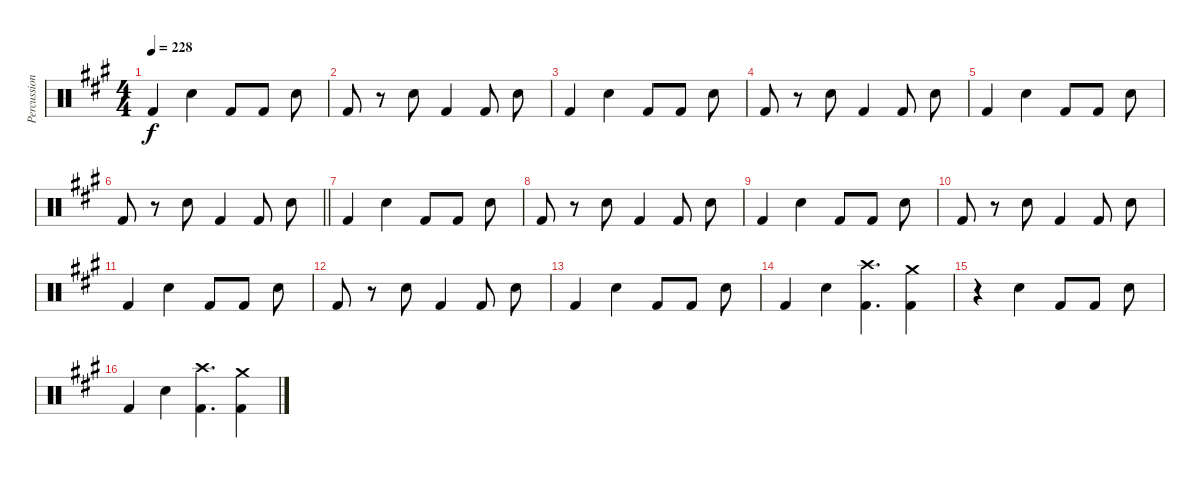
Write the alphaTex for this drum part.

\track ("Percussion" "Percussion") {instrument percussion}
\staff {score}
\articulation defaults
\ts (4 4)
\tempo 228
\clef neutral
\ks a "Kick (hit) 2".4{dy f} "Snare (hit) 2".4 "Kick (hit) 2".8 "Kick (hit) 2".8 "Snare (hit) 2".8
|
"Kick (hit) 2".8 r.8 "Snare (hit) 2".8 "Kick (hit) 2".4 "Kick (hit) 2".8 "Snare (hit) 2".8 |
"Kick (hit) 2".4 "Snare (hit) 2".4 "Kick (hit) 2".8 "Kick (hit) 2".8 "Snare (hit) 2".8 |
"Kick (hit) 2".8 r.8 "Snare (hit) 2".8 "Kick (hit) 2".4 "Kick (hit) 2".8 "Snare (hit) 2".8 |
"Kick (hit) 2".4 "Snare (hit) 2".4 "Kick (hit) 2".8 "Kick (hit) 2".8 "Snare (hit) 2".8 |
\barLineRight lightlight "Kick (hit) 2".8
r.8 "Snare (hit) 2".8 "Kick (hit) 2".4 "Kick (hit) 2".8 "Snare (hit) 2".8 |
"Kick (hit) 2".4 "Snare (hit) 2".4 "Kick (hit) 2".8 "Kick (hit) 2".8 "Snare (hit) 2".8 |
"Kick (hit) 2".8 r.8 "Snare (hit) 2".8 "Kick (hit) 2".4 "Kick (hit) 2".8 "Snare (hit) 2".8 |
"Kick (hit) 2".4 "Snare (hit) 2".4 "Kick (hit) 2".8 "Kick (hit) 2".8 "Snare (hit) 2".8 |
"Kick (hit) 2".8 r.8 "Snare (hit) 2".8 "Kick (hit) 2".4 "Kick (hit) 2".8 "Snare (hit) 2".8 |
"Kick (hit) 2".4 "Snare (hit) 2".4 "Kick (hit) 2".8 "Kick (hit) 2".8 "Snare (hit) 2".8 |
"Kick (hit) 2".8 r.8 "Snare (hit) 2".8 "Kick (hit) 2".4 "Kick (hit) 2".8 "Snare (hit) 2".8 |
"Kick (hit) 2".4 "Snare (hit) 2".4 "Kick (hit) 2".8 "Kick (hit) 2".8 "Snare (hit) 2".8 |
"Kick (hit) 2".4 "Snare (hit) 2".4 ("Crash high (hit)" "Kick (hit) 2").4{d} ("Crash medium (hit)" "Kick (hit) 2").4 |
r.4 "Snare (hit) 2".4 "Kick (hit) 2".8 "Kick (hit) 2".8 "Snare (hit) 2".8 |
"Kick (hit) 2".4 "Snare (hit) 2".4 ("Crash high (hit)" "Kick (hit) 2").4{d} ("Crash medium (hit)" "Kick (hit) 2").4
